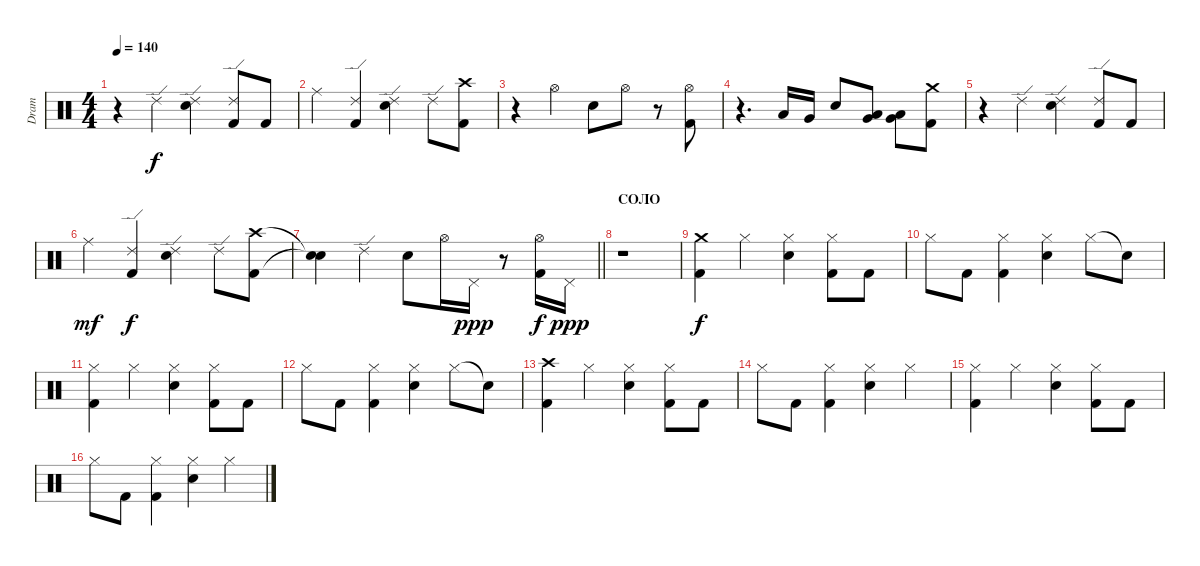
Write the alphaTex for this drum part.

\track ("Dram" "Dram") {instrument percussion}
\staff {score}
\articulation defaults
\ts (4 4)
\tempo 140
\clef neutral
\ks c
r.4{dy f} "Ride (edge) 2".4 ("Snare (hit) 2" "Ride (edge) 2").4 ("Kick (hit) 2" "Ride (edge) 2").8 "Kick (hit) 2".8 |
"Ride (middle)".4 ("Kick (hit) 2" "Ride (edge) 2").4 ("Snare (hit) 2" "Ride (edge) 2").4 "Ride (edge) 2".8 ("Crash high (hit)" "Kick (hit) 2").8 |
r.4 "Hi-Hat (open)".4 "Snare (hit) 2".8 "Hi-Hat (open)".8 r.8 ("Hi-Hat (open)" "Kick (hit) 2").8 |
r.4{d} "Low Tom (hit)".16 "Very Low Tom (hit)".16 "Snare (hit) 2".8 ("Very Low Tom (hit)" "Low Tom (hit)").8 ("Low Floor Tom (hit)" "Very Low Tom (hit)").8 ("Crash medium (hit)" "Kick (hit) 2").8 |
r.4 "Ride (edge) 2".4 ("Snare (hit) 2" "Ride (edge) 2").4 ("Kick (hit) 2" "Ride (edge) 2").8 "Kick (hit) 2".8 |
"Ride (middle)".4{dy mf} ("Kick (hit) 2" "Ride (edge) 2").4{dy f} ("Snare (hit) 2" "Ride (edge) 2").4 "Ride (edge) 2".8 ("Crash high (hit)" "Kick (hit) 2").8 |
\barLineRight lightlight
("Snare (hit)"{t} "Snare (hit)"{t}).4 "Ride (edge) 2".4 "Snare (hit) 2".8 "Hi-Hat (open)".16 "Pedal Hi-Hat (hit)".16{dy ppp} r.8 ("Hi-Hat (open)" "Kick (hit) 2").16{dy f} "Pedal Hi-Hat (hit)".16{dy ppp} |
\section ("" "СОЛО")
r.1 |
("Kick (hit) 2" "Crash medium (hit)").4{dy f} "Hi-Hat (closed)".4 ("Snare (hit) 2" "Hi-Hat (closed)").4 ("Kick (hit) 2" "Hi-Hat (closed)").8 "Kick (hit) 2".8 |
"Hi-Hat (closed)".8 "Kick (hit) 2".8 ("Kick (hit) 2" "Hi-Hat (closed)").4 ("Snare (hit) 2" "Hi-Hat (closed)").4 "Hi-Hat (closed)".8 "Snare (hit)"{t}.8 |
("Hi-Hat (closed)" "Kick (hit) 2").4 "Hi-Hat (closed)".4 ("Snare (hit) 2" "Hi-Hat (closed)").4 ("Kick (hit) 2" "Hi-Hat (closed)").8 "Kick (hit) 2".8 |
"Hi-Hat (closed)".8 "Kick (hit) 2".8 ("Kick (hit) 2" "Hi-Hat (closed)").4 ("Snare (hit) 2" "Hi-Hat (closed)").4 "Hi-Hat (closed)".8 "Snare (hit)"{t}.8 |
("Kick (hit) 2" "Crash high (hit)").4 "Hi-Hat (closed)".4 ("Snare (hit) 2" "Hi-Hat (closed)").4 ("Kick (hit) 2" "Hi-Hat (closed)").8 "Kick (hit) 2".8 |
"Hi-Hat (closed)".8 "Kick (hit) 2".8 ("Kick (hit) 2" "Hi-Hat (closed)").4 ("Snare (hit) 2" "Hi-Hat (closed)").4 "Hi-Hat (closed)".4 |
("Hi-Hat (closed)" "Kick (hit) 2").4 "Hi-Hat (closed)".4 ("Snare (hit) 2" "Hi-Hat (closed)").4 ("Kick (hit) 2" "Hi-Hat (closed)").8 "Kick (hit) 2".8 |
"Hi-Hat (closed)".8 "Kick (hit) 2".8 ("Kick (hit) 2" "Hi-Hat (closed)").4 ("Snare (hit) 2" "Hi-Hat (closed)").4 "Hi-Hat (closed)".4
